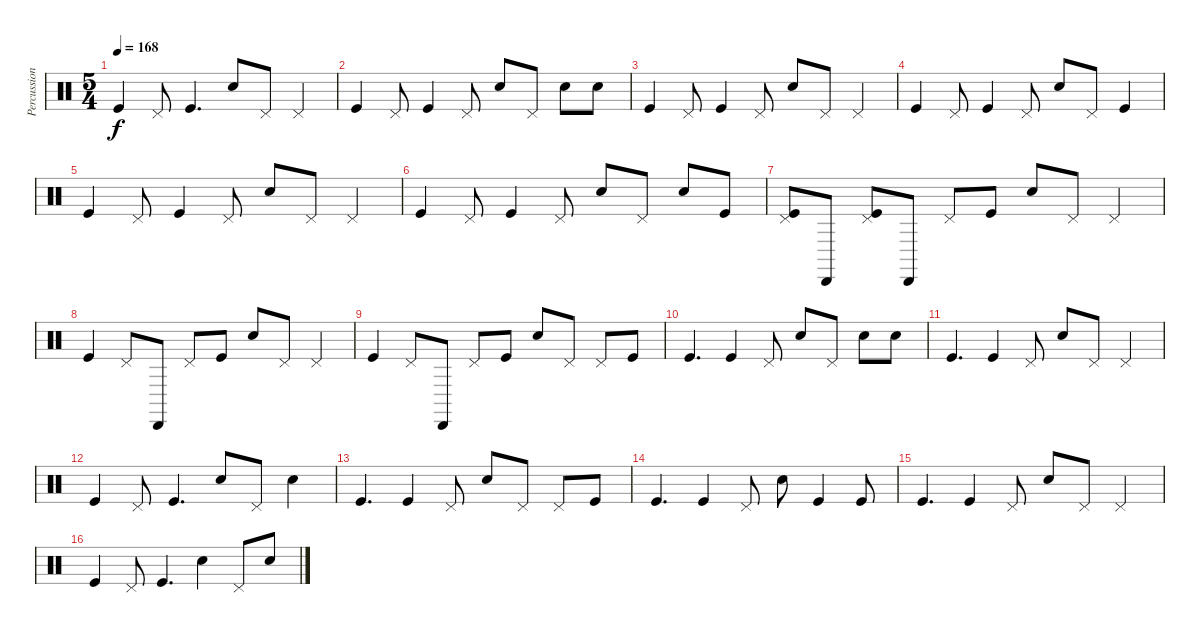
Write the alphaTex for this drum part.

\track ("Percussion" "Percussion") {instrument percussion}
\staff {score}
\articulation defaults
\ts (5 4)
\tempo 168
\clef neutral
\ks c "Kick (hit)".4{dy f} "Pedal Hi-Hat (hit)".8 "Kick (hit)".4{d} "Snare (hit) 2".8 "Pedal Hi-Hat (hit)".8 "Pedal Hi-Hat (hit)".4
|
"Kick (hit)".4 "Pedal Hi-Hat (hit)".8 "Kick (hit)".4 "Pedal Hi-Hat (hit)".8 "Snare (hit) 2".8 "Pedal Hi-Hat (hit)".8 "Snare (hit) 2".8 "Snare (hit) 2".8 |
"Kick (hit)".4 "Pedal Hi-Hat (hit)".8 "Kick (hit)".4 "Pedal Hi-Hat (hit)".8 "Snare (hit) 2".8 "Pedal Hi-Hat (hit)".8 "Pedal Hi-Hat (hit)".4 |
"Kick (hit)".4 "Pedal Hi-Hat (hit)".8 "Kick (hit)".4 "Pedal Hi-Hat (hit)".8 "Snare (hit) 2".8 "Pedal Hi-Hat (hit)".8 "Kick (hit)".4 |
"Kick (hit)".4 "Pedal Hi-Hat (hit)".8 "Kick (hit)".4 "Pedal Hi-Hat (hit)".8 "Snare (hit) 2".8 "Pedal Hi-Hat (hit)".8 "Pedal Hi-Hat (hit)".4 |
"Kick (hit)".4 "Pedal Hi-Hat (hit)".8 "Kick (hit)".4 "Pedal Hi-Hat (hit)".8 "Snare (hit) 2".8 "Pedal Hi-Hat (hit)".8 "Snare (hit) 2".8 "Kick (hit)".8 |
("Kick (hit)" "Pedal Hi-Hat (hit)").8 "Cabasa (hit)".8 ("Kick (hit)" "Pedal Hi-Hat (hit)").8 "Cabasa (hit)".8 "Pedal Hi-Hat (hit)".8 "Kick (hit)".8 "Snare (hit) 2".8 "Pedal Hi-Hat (hit)".8 "Pedal Hi-Hat (hit)".4 |
"Kick (hit)".4 "Pedal Hi-Hat (hit)".8 "Cabasa (hit)".8 "Pedal Hi-Hat (hit)".8 "Kick (hit)".8 "Snare (hit) 2".8 "Pedal Hi-Hat (hit)".8 "Pedal Hi-Hat (hit)".4 |
"Kick (hit)".4 "Pedal Hi-Hat (hit)".8 "Cabasa (hit)".8 "Pedal Hi-Hat (hit)".8 "Kick (hit)".8 "Snare (hit) 2".8 "Pedal Hi-Hat (hit)".8 "Pedal Hi-Hat (hit)".8 "Kick (hit)".8 |
"Kick (hit)".4{d} "Kick (hit)".4 "Pedal Hi-Hat (hit)".8 "Snare (hit) 2".8 "Pedal Hi-Hat (hit)".8 "Snare (hit) 2".8 "Snare (hit) 2".8 |
"Kick (hit)".4{d} "Kick (hit)".4 "Pedal Hi-Hat (hit)".8 "Snare (hit) 2".8 "Pedal Hi-Hat (hit)".8 "Pedal Hi-Hat (hit)".4 |
"Kick (hit)".4 "Pedal Hi-Hat (hit)".8 "Kick (hit)".4{d} "Snare (hit) 2".8 "Pedal Hi-Hat (hit)".8 "Snare (hit) 2".4 |
"Kick (hit)".4{d} "Kick (hit)".4 "Pedal Hi-Hat (hit)".8 "Snare (hit) 2".8 "Pedal Hi-Hat (hit)".8 "Pedal Hi-Hat (hit)".8 "Kick (hit)".8 |
"Kick (hit)".4{d} "Kick (hit)".4 "Pedal Hi-Hat (hit)".8 "Snare (hit) 2".8 "Kick (hit)".4 "Kick (hit)".8 |
"Kick (hit)".4{d} "Kick (hit)".4 "Pedal Hi-Hat (hit)".8 "Snare (hit) 2".8 "Pedal Hi-Hat (hit)".8 "Pedal Hi-Hat (hit)".4 |
"Kick (hit)".4 "Pedal Hi-Hat (hit)".8 "Kick (hit)".4{d} "Snare (hit) 2".4 "Pedal Hi-Hat (hit)".8 "Snare (hit) 2".8
